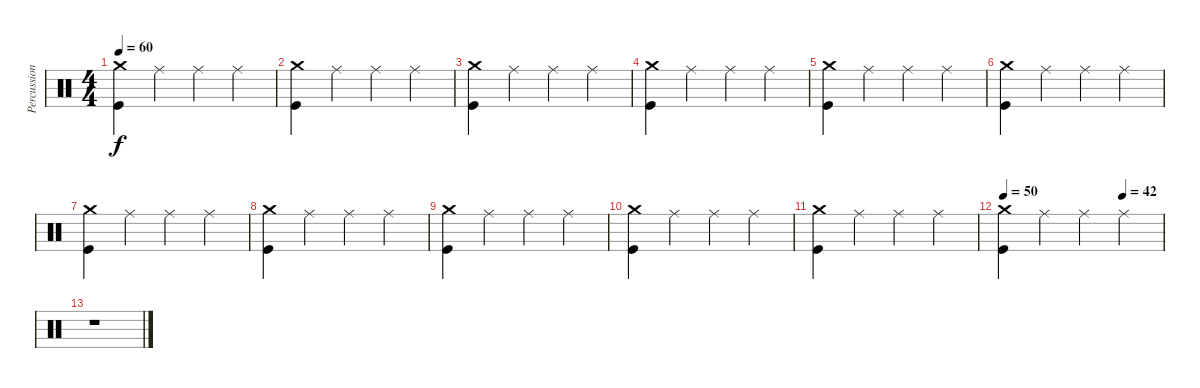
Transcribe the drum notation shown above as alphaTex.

\track ("Percussions" "Percussion") {instrument percussion}
\staff {score}
\articulation defaults
\ts (4 4)
\tempo 60
\clef neutral
\ks c
("Crash medium (hit)" "Kick (hit)").4{dy f} "Ride (middle)".4 "Ride (middle)".4 "Ride (middle)".4 |
("Crash medium (hit)" "Kick (hit)").4 "Ride (middle)".4 "Ride (middle)".4 "Ride (middle)".4 |
("Crash medium (hit)" "Kick (hit)").4 "Ride (middle)".4 "Ride (middle)".4 "Ride (middle)".4 |
("Crash medium (hit)" "Kick (hit)").4 "Ride (middle)".4 "Ride (middle)".4 "Ride (middle)".4 |
("Crash medium (hit)" "Kick (hit)").4 "Ride (middle)".4 "Ride (middle)".4 "Ride (middle)".4 |
("Crash medium (hit)" "Kick (hit)").4 "Ride (middle)".4 "Ride (middle)".4 "Ride (middle)".4 |
("Crash medium (hit)" "Kick (hit)").4 "Ride (middle)".4 "Ride (middle)".4 "Ride (middle)".4 |
("Crash medium (hit)" "Kick (hit)").4 "Ride (middle)".4 "Ride (middle)".4 "Ride (middle)".4 |
("Crash medium (hit)" "Kick (hit)").4 "Ride (middle)".4 "Ride (middle)".4 "Ride (middle)".4 |
("Crash medium (hit)" "Kick (hit)").4 "Ride (middle)".4 "Ride (middle)".4 "Ride (middle)".4 |
("Crash medium (hit)" "Kick (hit)").4 "Ride (middle)".4 "Ride (middle)".4 "Ride (middle)".4 |
\tempo 50
\tempo (42 0.75)
("Crash medium (hit)" "Kick (hit)").4 "Ride (middle)".4 "Ride (middle)".4 "Ride (middle)".4 |
r.1
